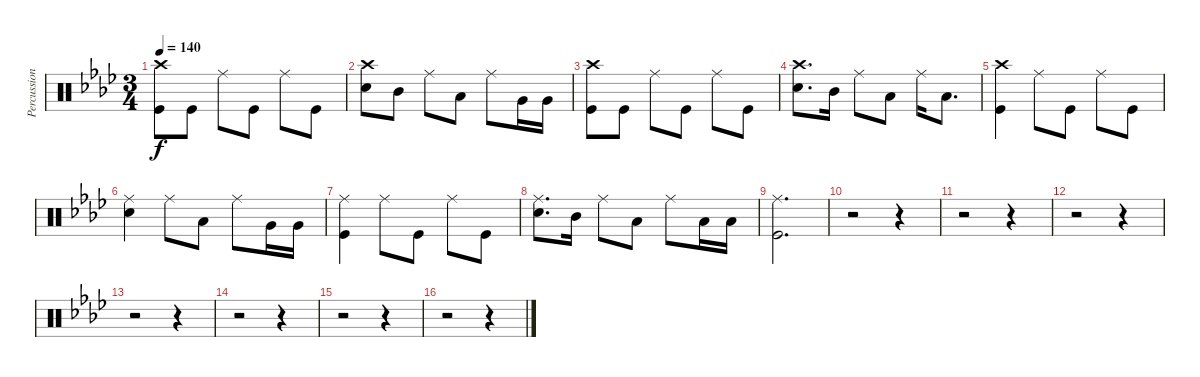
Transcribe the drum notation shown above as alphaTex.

\track ("Percussion" "Percussion") {instrument percussion}
\staff {score}
\articulation defaults
\ts (3 4)
\tempo 140
\clef neutral
\ks ab
("Crash high (hit)" "Kick (hit)").8{dy f} "Kick (hit)".8 "Ride (middle)".8 "Kick (hit)".8 "Ride (middle)".8 "Kick (hit)".8 |
("Crash high (hit)" "Snare (hit) 2").8 "Mid Tom (hit)".8 "Ride (middle)".8 "Low Tom (hit)".8 "Ride (middle)".8 "Very Low Tom (hit)".16 "Very Low Tom (hit)".16 |
("Crash high (hit)" "Kick (hit)").8 "Kick (hit)".8 "Ride (middle)".8 "Kick (hit)".8 "Ride (middle)".8 "Kick (hit)".8 |
("Crash high (hit)" "Snare (hit) 2").8{d} "Mid Tom (hit)".16 "Ride (middle)".8 "Low Tom (hit)".8 "Ride (middle)".16 "Low Floor Tom (hit)".8{d} |
("Crash high (hit)" "Kick (hit)").4 "Ride (middle)".8 "Kick (hit)".8 "Ride (middle)".8 "Kick (hit)".8 |
("Ride (middle)" "Snare (hit) 2").4 "Ride (middle)".8 "Low Tom (hit)".8 "Ride (middle)".8 "Very Low Tom (hit)".16 "Very Low Tom (hit)".16 |
("Ride (middle)" "Kick (hit)").4 "Ride (middle)".8 "Kick (hit)".8 "Ride (middle)".8 "Kick (hit)".8 |
("Ride (middle)" "Snare (hit) 2").8{d} "Mid Tom (hit)".16 "Ride (middle)".8 "Low Tom (hit)".8 "Ride (middle)".8 "Low Floor Tom (hit)".16 "Low Floor Tom (hit)".16 |
("Ride (middle)" "Kick (hit)").2{d} |
r.2 r.4 |
r.2 r.4 |
r.2 r.4 |
r.2 r.4 |
r.2 r.4 |
r.2 r.4 |
r.2 r.4
